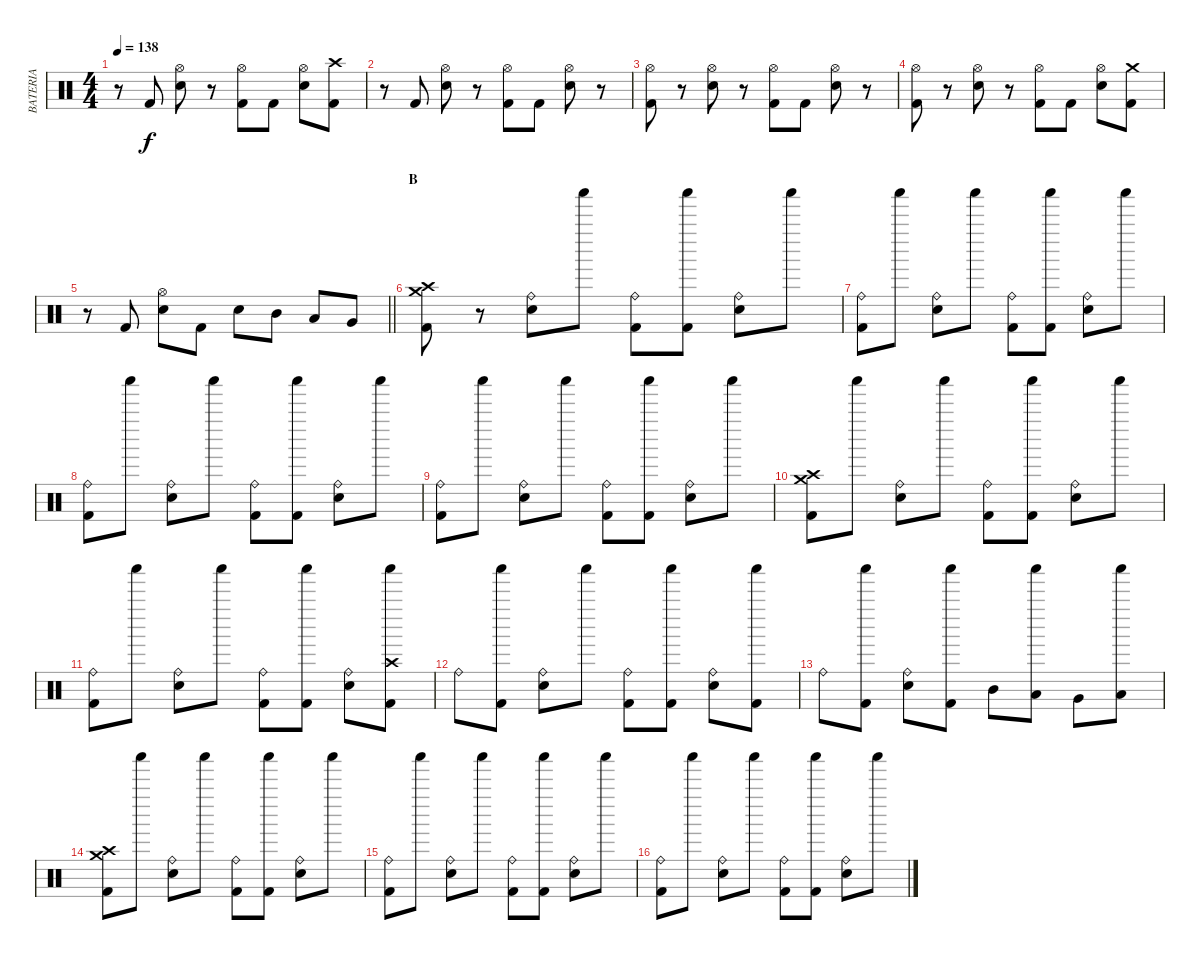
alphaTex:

\track ("BATERIA" "BATERIA") {instrument percussion}
\staff {score}
\articulation defaults
\ts (4 4)
\tempo 138
\clef neutral
\ks c
r.8{dy f} "Kick (hit) 2".8 ("Electric Snare (hit)" "Hi-Hat (open)").8 r.8 ("Kick (hit) 2" "Hi-Hat (open)").8 "Kick (hit) 2".8 ("Electric Snare (hit)" "Hi-Hat (open)").8 ("Kick (hit) 2" "Crash high (hit)").8 |
r.8 "Kick (hit) 2".8 ("Electric Snare (hit)" "Hi-Hat (open)").8 r.8 ("Kick (hit) 2" "Hi-Hat (open)").8 "Kick (hit) 2".8 ("Electric Snare (hit)" "Hi-Hat (open)").8 r.8 |
("Kick (hit) 2" "Hi-Hat (open)").8 r.8 ("Electric Snare (hit)" "Hi-Hat (open)").8 r.8 ("Kick (hit) 2" "Hi-Hat (open)").8 "Kick (hit) 2".8 ("Electric Snare (hit)" "Hi-Hat (open)").8 r.8 |
("Kick (hit) 2" "Hi-Hat (open)").8 r.8 ("Electric Snare (hit)" "Hi-Hat (open)").8 r.8 ("Kick (hit) 2" "Hi-Hat (open)").8 "Kick (hit) 2".8 ("Electric Snare (hit)" "Hi-Hat (open)").8 ("Kick (hit) 2" "Crash medium (hit)").8 |
\barLineRight lightlight
r.8 "Kick (hit) 2".8 ("Electric Snare (hit)" "Hi-Hat (open)").8 "Kick (hit) 2".8 "Electric Snare (hit)".8 "Mid Tom (hit)".8 "Low Tom (hit)".8 "Very Low Tom (hit)".8 |
\section ("" "B")
("Kick (hit) 2" "Crash medium (hit)" "Crash high (hit)").8 r.8 ("Electric Snare (hit)" "Ride (bell)").8 "Shaker (hit)".8 ("Kick (hit) 2" "Ride (bell)").8 ("Kick (hit) 2" "Shaker (hit)").8 ("Electric Snare (hit)" "Ride (bell)").8 "Shaker (hit)".8 |
("Kick (hit) 2" "Ride (bell)").8 "Shaker (hit)".8 ("Electric Snare (hit)" "Ride (bell)").8 "Shaker (hit)".8 ("Kick (hit) 2" "Ride (bell)").8 ("Kick (hit) 2" "Shaker (hit)").8 ("Electric Snare (hit)" "Ride (bell)").8 "Shaker (hit)".8 |
("Kick (hit) 2" "Ride (bell)").8 "Shaker (hit)".8 ("Electric Snare (hit)" "Ride (bell)").8 "Shaker (hit)".8 ("Kick (hit) 2" "Ride (bell)").8 ("Kick (hit) 2" "Shaker (hit)").8 ("Electric Snare (hit)" "Ride (bell)").8 "Shaker (hit)".8 |
("Kick (hit) 2" "Ride (bell)").8 "Shaker (hit)".8 ("Electric Snare (hit)" "Ride (bell)").8 "Shaker (hit)".8 ("Kick (hit) 2" "Ride (bell)").8 ("Kick (hit) 2" "Shaker (hit)").8 ("Electric Snare (hit)" "Ride (bell)").8 "Shaker (hit)".8 |
("Kick (hit) 2" "Crash medium (hit)" "Crash high (hit)").8 "Shaker (hit)".8 ("Electric Snare (hit)" "Ride (bell)").8 "Shaker (hit)".8 ("Kick (hit) 2" "Ride (bell)").8 ("Kick (hit) 2" "Shaker (hit)").8 ("Electric Snare (hit)" "Ride (bell)").8 "Shaker (hit)".8 |
("Kick (hit) 2" "Ride (bell)").8 "Shaker (hit)".8 ("Electric Snare (hit)" "Ride (bell)").8 "Shaker (hit)".8 ("Kick (hit) 2" "Ride (bell)").8 ("Kick (hit) 2" "Shaker (hit)").8 ("Electric Snare (hit)" "Ride (bell)").8 ("Kick (hit) 2" "Shaker (hit)" "Crash high (hit)").8 |
"Ride (bell)".8 ("Kick (hit) 2" "Shaker (hit)").8 ("Electric Snare (hit)" "Ride (bell)").8 "Shaker (hit)".8 ("Kick (hit) 2" "Ride (bell)").8 ("Kick (hit) 2" "Shaker (hit)").8 ("Electric Snare (hit)" "Ride (bell)").8 ("Kick (hit) 2" "Shaker (hit)").8 |
"Ride (bell)".8 ("Kick (hit) 2" "Shaker (hit)").8 ("Electric Snare (hit)" "Ride (bell)").8 ("Kick (hit) 2" "Shaker (hit)").8 "Mid Tom (hit)".8 ("Low Tom (hit)" "Shaker (hit)").8 "Very Low Tom (hit)".8 ("Low Floor Tom (hit)" "Shaker (hit)").8 |
("Kick (hit) 2" "Crash medium (hit)" "Crash high (hit)").8 "Shaker (hit)".8 ("Electric Snare (hit)" "Ride (bell)").8 "Shaker (hit)".8 ("Kick (hit) 2" "Ride (bell)").8 ("Kick (hit) 2" "Shaker (hit)").8 ("Electric Snare (hit)" "Ride (bell)").8 "Shaker (hit)".8 |
("Kick (hit) 2" "Ride (bell)").8 "Shaker (hit)".8 ("Electric Snare (hit)" "Ride (bell)").8 "Shaker (hit)".8 ("Kick (hit) 2" "Ride (bell)").8 ("Kick (hit) 2" "Shaker (hit)").8 ("Electric Snare (hit)" "Ride (bell)").8 "Shaker (hit)".8 |
("Kick (hit) 2" "Ride (bell)").8 "Shaker (hit)".8 ("Electric Snare (hit)" "Ride (bell)").8 "Shaker (hit)".8 ("Kick (hit) 2" "Ride (bell)").8 ("Kick (hit) 2" "Shaker (hit)").8 ("Electric Snare (hit)" "Ride (bell)").8 "Shaker (hit)".8
